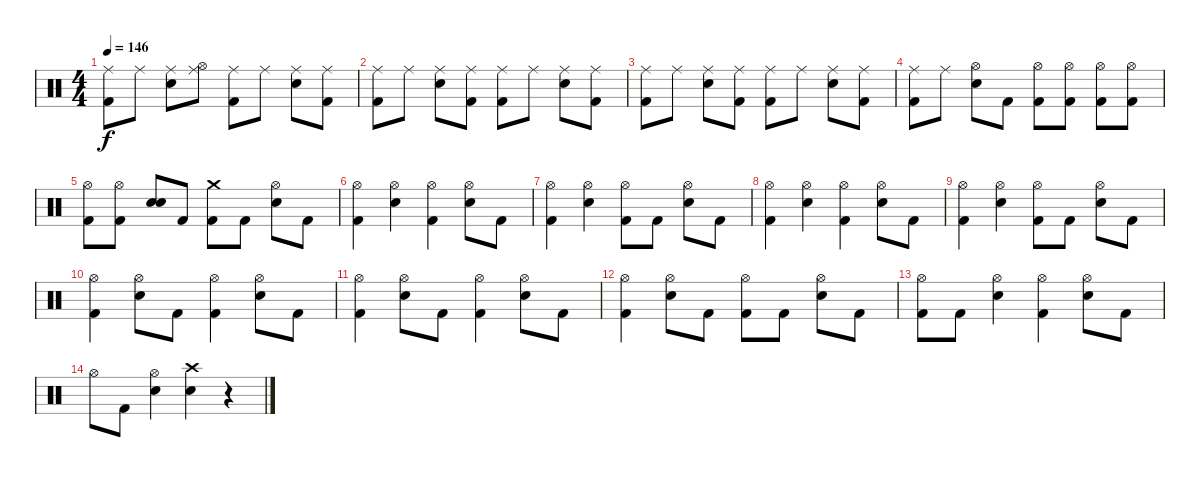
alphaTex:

\track "" {instrument percussion}
\staff {score}
\articulation defaults
\ts (4 4)
\tempo 146
\clef neutral
\ks c
("Ride (middle)" "Kick (hit) 2").8{dy f} "Ride (middle)".8 ("Ride (middle)" "Snare (hit) 2").8 ("Ride (middle)" "Hi-Hat (open)").8 ("Ride (middle)" "Kick (hit) 2").8 "Ride (middle)".8 ("Ride (middle)" "Snare (hit) 2").8 ("Ride (middle)" "Kick (hit) 2").8 |
("Kick (hit) 2" "Ride (middle)").8 "Ride (middle)".8 ("Ride (middle)" "Snare (hit) 2").8 ("Ride (middle)" "Kick (hit) 2").8 ("Ride (middle)" "Kick (hit) 2").8 "Ride (middle)".8 ("Ride (middle)" "Snare (hit) 2").8 ("Ride (middle)" "Kick (hit) 2").8 |
("Ride (middle)" "Kick (hit) 2").8 "Ride (middle)".8 ("Ride (middle)" "Snare (hit) 2").8 ("Ride (middle)" "Kick (hit) 2").8 ("Ride (middle)" "Kick (hit) 2").8 "Ride (middle)".8 ("Ride (middle)" "Snare (hit) 2").8 ("Ride (middle)" "Kick (hit) 2").8 |
("Ride (middle)" "Kick (hit) 2").8 "Ride (middle)".8 ("Snare (hit) 2" "Hi-Hat (open)").8 "Kick (hit) 2".8 ("Hi-Hat (open)" "Kick (hit) 2").8 ("Hi-Hat (open)" "Kick (hit) 2").8 ("Hi-Hat (open)" "Kick (hit) 2").8 ("Hi-Hat (open)" "Kick (hit) 2").8 |
("Hi-Hat (open)" "Kick (hit) 2").8 ("Hi-Hat (open)" "Kick (hit) 2").8 ("Snare (hit) 2" "Snare (hit) 2").8 "Kick (hit) 2".8 ("Kick (hit) 2" "Crash medium (hit)").8 "Kick (hit) 2".8 ("Snare (hit) 2" "Hi-Hat (open)").8 "Kick (hit) 2".8 |
("Kick (hit) 2" "Hi-Hat (open)").4 ("Snare (hit) 2" "Hi-Hat (open)").4 ("Kick (hit) 2" "Hi-Hat (open)").4 ("Snare (hit) 2" "Hi-Hat (open)").8 "Kick (hit) 2".8 |
("Kick (hit) 2" "Hi-Hat (open)").4 ("Snare (hit) 2" "Hi-Hat (open)").4 ("Kick (hit) 2" "Hi-Hat (open)").8 "Kick (hit) 2".8 ("Snare (hit) 2" "Hi-Hat (open)").8 "Kick (hit) 2".8 |
("Kick (hit) 2" "Hi-Hat (open)").4 ("Snare (hit) 2" "Hi-Hat (open)").4 ("Kick (hit) 2" "Hi-Hat (open)").4 ("Snare (hit) 2" "Hi-Hat (open)").8 "Kick (hit) 2".8 |
("Kick (hit) 2" "Hi-Hat (open)").4 ("Snare (hit) 2" "Hi-Hat (open)").4 ("Kick (hit) 2" "Hi-Hat (open)").8 "Kick (hit) 2".8 ("Snare (hit) 2" "Hi-Hat (open)").8 "Kick (hit) 2".8 |
("Kick (hit) 2" "Hi-Hat (open)").4 ("Snare (hit) 2" "Hi-Hat (open)").8 "Kick (hit) 2".8 ("Kick (hit) 2" "Hi-Hat (open)").4 ("Snare (hit) 2" "Hi-Hat (open)").8 "Kick (hit) 2".8 |
("Kick (hit) 2" "Hi-Hat (open)").4 ("Snare (hit) 2" "Hi-Hat (open)").8 "Kick (hit) 2".8 ("Kick (hit) 2" "Hi-Hat (open)").4 ("Snare (hit) 2" "Hi-Hat (open)").8 "Kick (hit) 2".8 |
("Kick (hit) 2" "Hi-Hat (open)").4 ("Snare (hit) 2" "Hi-Hat (open)").8 "Kick (hit) 2".8 ("Kick (hit) 2" "Hi-Hat (open)").8 "Kick (hit) 2".8 ("Snare (hit) 2" "Hi-Hat (open)").8 "Kick (hit) 2".8 |
("Kick (hit) 2" "Hi-Hat (open)").8 "Kick (hit) 2".8 ("Snare (hit) 2" "Hi-Hat (open)").4 ("Kick (hit) 2" "Hi-Hat (open)").4 ("Snare (hit) 2" "Hi-Hat (open)").8 "Kick (hit) 2".8 |
"Hi-Hat (open)".8 "Kick (hit) 2".8 ("Snare (hit) 2" "Hi-Hat (open)").4 ("Snare (hit) 2" "Crash high (hit)").4 r.4
